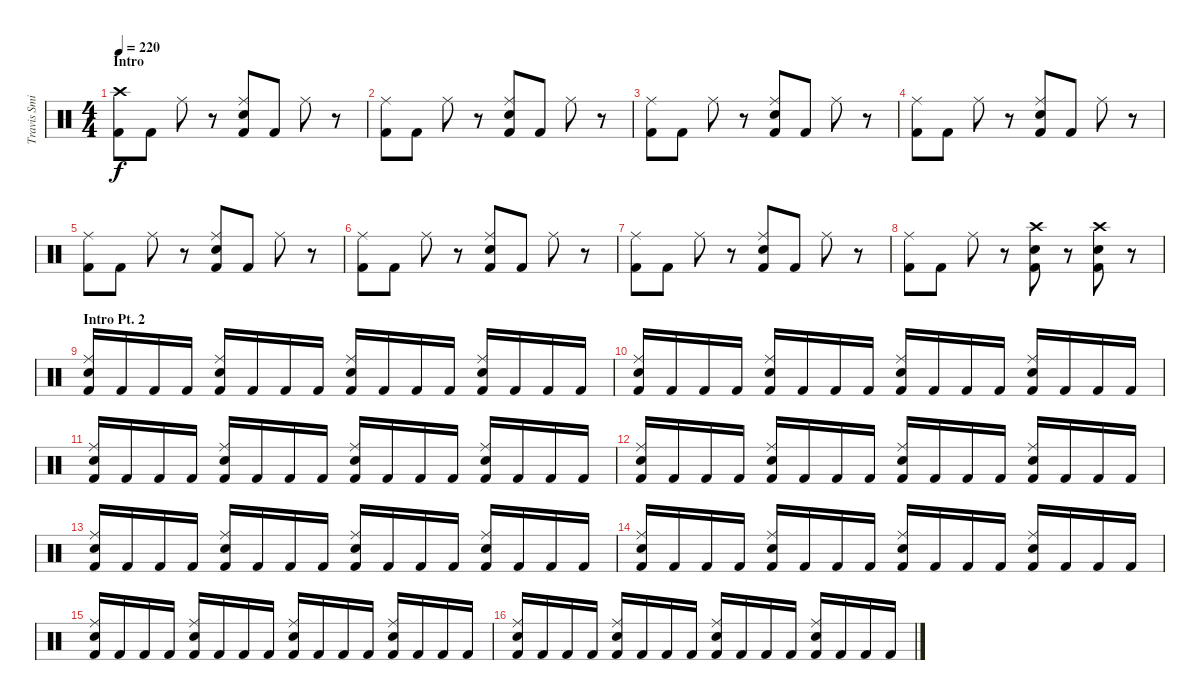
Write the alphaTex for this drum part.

\track ("Travis Smith" "Travis Smi") {instrument percussion}
\staff {score}
\articulation defaults
\ts (4 4)
\section ("" "Intro")
\tempo 220
\clef neutral
\ks c
("Crash high (hit)" "Kick (hit) 2").8{dy f} "Kick (hit) 2".8 "Ride (middle)".8 r.8 ("Ride (middle)" "Electric Snare (hit)" "Kick (hit) 2").8 "Kick (hit) 2".8 "Ride (middle)".8 r.8 |
("Ride (middle)" "Kick (hit) 2").8 "Kick (hit) 2".8 "Ride (middle)".8 r.8 ("Ride (middle)" "Electric Snare (hit)" "Kick (hit) 2").8 "Kick (hit) 2".8 "Ride (middle)".8 r.8 |
("Ride (middle)" "Kick (hit) 2").8 "Kick (hit) 2".8 "Ride (middle)".8 r.8 ("Ride (middle)" "Electric Snare (hit)" "Kick (hit) 2").8 "Kick (hit) 2".8 "Ride (middle)".8 r.8 |
("Ride (middle)" "Kick (hit) 2").8 "Kick (hit) 2".8 "Ride (middle)".8 r.8 ("Ride (middle)" "Electric Snare (hit)" "Kick (hit) 2").8 "Kick (hit) 2".8 "Ride (middle)".8 r.8 |
("Ride (middle)" "Kick (hit) 2").8 "Kick (hit) 2".8 "Ride (middle)".8 r.8 ("Ride (middle)" "Electric Snare (hit)" "Kick (hit) 2").8 "Kick (hit) 2".8 "Ride (middle)".8 r.8 |
("Ride (middle)" "Kick (hit) 2").8 "Kick (hit) 2".8 "Ride (middle)".8 r.8 ("Ride (middle)" "Electric Snare (hit)" "Kick (hit) 2").8 "Kick (hit) 2".8 "Ride (middle)".8 r.8 |
("Ride (middle)" "Kick (hit) 2").8 "Kick (hit) 2".8 "Ride (middle)".8 r.8 ("Ride (middle)" "Electric Snare (hit)" "Kick (hit) 2").8 "Kick (hit) 2".8 "Ride (middle)".8 r.8 |
("Ride (middle)" "Kick (hit) 2").8 "Kick (hit) 2".8 "Ride (middle)".8 r.8 ("Crash high (hit)" "Electric Snare (hit)" "Kick (hit) 2").8 r.8 ("Crash high (hit)" "Electric Snare (hit)" "Kick (hit) 2").8 r.8 |
\section ("" "Intro Pt. 2")
("Ride (middle)" "Electric Snare (hit)" "Kick (hit) 2").16 "Kick (hit) 2".16 "Kick (hit) 2".16 "Kick (hit) 2".16 ("Ride (middle)" "Electric Snare (hit)" "Kick (hit) 2").16 "Kick (hit) 2".16 "Kick (hit) 2".16 "Kick (hit) 2".16 ("Ride (middle)" "Electric Snare (hit)" "Kick (hit) 2").16 "Kick (hit) 2".16 "Kick (hit) 2".16 "Kick (hit) 2".16 ("Ride (middle)" "Electric Snare (hit)" "Kick (hit) 2").16 "Kick (hit) 2".16 "Kick (hit) 2".16 "Kick (hit) 2".16 |
("Ride (middle)" "Electric Snare (hit)" "Kick (hit) 2").16 "Kick (hit) 2".16 "Kick (hit) 2".16 "Kick (hit) 2".16 ("Ride (middle)" "Electric Snare (hit)" "Kick (hit) 2").16 "Kick (hit) 2".16 "Kick (hit) 2".16 "Kick (hit) 2".16 ("Ride (middle)" "Electric Snare (hit)" "Kick (hit) 2").16 "Kick (hit) 2".16 "Kick (hit) 2".16 "Kick (hit) 2".16 ("Ride (middle)" "Electric Snare (hit)" "Kick (hit) 2").16 "Kick (hit) 2".16 "Kick (hit) 2".16 "Kick (hit) 2".16 |
("Ride (middle)" "Electric Snare (hit)" "Kick (hit) 2").16 "Kick (hit) 2".16 "Kick (hit) 2".16 "Kick (hit) 2".16 ("Ride (middle)" "Electric Snare (hit)" "Kick (hit) 2").16 "Kick (hit) 2".16 "Kick (hit) 2".16 "Kick (hit) 2".16 ("Ride (middle)" "Electric Snare (hit)" "Kick (hit) 2").16 "Kick (hit) 2".16 "Kick (hit) 2".16 "Kick (hit) 2".16 ("Ride (middle)" "Electric Snare (hit)" "Kick (hit) 2").16 "Kick (hit) 2".16 "Kick (hit) 2".16 "Kick (hit) 2".16 |
("Ride (middle)" "Electric Snare (hit)" "Kick (hit) 2").16 "Kick (hit) 2".16 "Kick (hit) 2".16 "Kick (hit) 2".16 ("Ride (middle)" "Electric Snare (hit)" "Kick (hit) 2").16 "Kick (hit) 2".16 "Kick (hit) 2".16 "Kick (hit) 2".16 ("Ride (middle)" "Electric Snare (hit)" "Kick (hit) 2").16 "Kick (hit) 2".16 "Kick (hit) 2".16 "Kick (hit) 2".16 ("Ride (middle)" "Electric Snare (hit)" "Kick (hit) 2").16 "Kick (hit) 2".16 "Kick (hit) 2".16 "Kick (hit) 2".16 |
("Ride (middle)" "Electric Snare (hit)" "Kick (hit) 2").16 "Kick (hit) 2".16 "Kick (hit) 2".16 "Kick (hit) 2".16 ("Ride (middle)" "Electric Snare (hit)" "Kick (hit) 2").16 "Kick (hit) 2".16 "Kick (hit) 2".16 "Kick (hit) 2".16 ("Ride (middle)" "Electric Snare (hit)" "Kick (hit) 2").16 "Kick (hit) 2".16 "Kick (hit) 2".16 "Kick (hit) 2".16 ("Ride (middle)" "Electric Snare (hit)" "Kick (hit) 2").16 "Kick (hit) 2".16 "Kick (hit) 2".16 "Kick (hit) 2".16 |
("Ride (middle)" "Electric Snare (hit)" "Kick (hit) 2").16 "Kick (hit) 2".16 "Kick (hit) 2".16 "Kick (hit) 2".16 ("Ride (middle)" "Electric Snare (hit)" "Kick (hit) 2").16 "Kick (hit) 2".16 "Kick (hit) 2".16 "Kick (hit) 2".16 ("Ride (middle)" "Electric Snare (hit)" "Kick (hit) 2").16 "Kick (hit) 2".16 "Kick (hit) 2".16 "Kick (hit) 2".16 ("Ride (middle)" "Electric Snare (hit)" "Kick (hit) 2").16 "Kick (hit) 2".16 "Kick (hit) 2".16 "Kick (hit) 2".16 |
("Ride (middle)" "Electric Snare (hit)" "Kick (hit) 2").16 "Kick (hit) 2".16 "Kick (hit) 2".16 "Kick (hit) 2".16 ("Ride (middle)" "Electric Snare (hit)" "Kick (hit) 2").16 "Kick (hit) 2".16 "Kick (hit) 2".16 "Kick (hit) 2".16 ("Ride (middle)" "Electric Snare (hit)" "Kick (hit) 2").16 "Kick (hit) 2".16 "Kick (hit) 2".16 "Kick (hit) 2".16 ("Ride (middle)" "Electric Snare (hit)" "Kick (hit) 2").16 "Kick (hit) 2".16 "Kick (hit) 2".16 "Kick (hit) 2".16 |
("Ride (middle)" "Electric Snare (hit)" "Kick (hit) 2").16 "Kick (hit) 2".16 "Kick (hit) 2".16 "Kick (hit) 2".16 ("Ride (middle)" "Electric Snare (hit)" "Kick (hit) 2").16 "Kick (hit) 2".16 "Kick (hit) 2".16 "Kick (hit) 2".16 ("Ride (middle)" "Electric Snare (hit)" "Kick (hit) 2").16 "Kick (hit) 2".16 "Kick (hit) 2".16 "Kick (hit) 2".16 ("Ride (middle)" "Electric Snare (hit)" "Kick (hit) 2").16 "Kick (hit) 2".16 "Kick (hit) 2".16 "Kick (hit) 2".16
